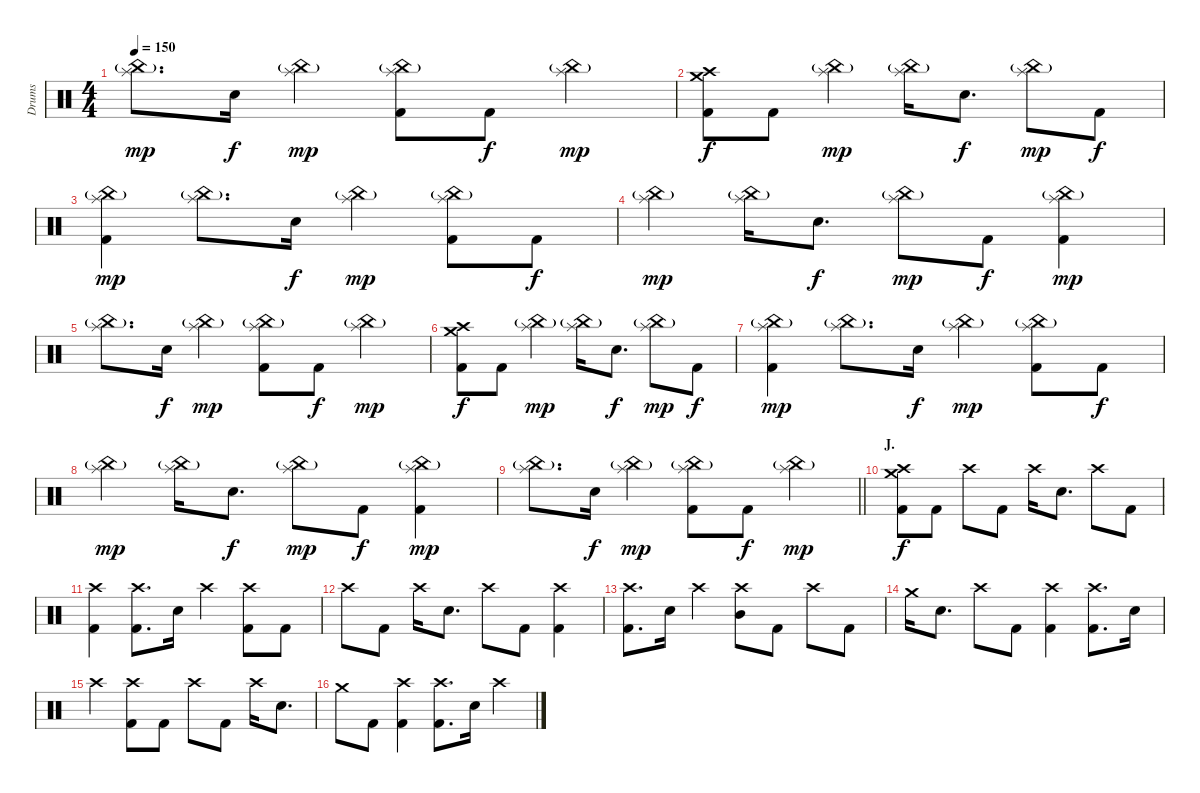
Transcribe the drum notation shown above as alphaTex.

\track ("Drums" "Drums") {instrument percussion}
\staff {score}
\articulation defaults
\ts (4 4)
\tempo 150
\clef neutral
\ks c
("China (hit)"{g} "Splash (hit)").8{d dy mp} "Electric Snare (hit)".16{dy f} ("China (hit)"{g} "Splash (hit)").4{dy mp} ("China (hit)"{g} "Splash (hit)" "Kick (hit) 2").8 "Kick (hit) 2".8{dy f} ("China (hit)"{g} "Splash (hit)").4{dy mp} |
("Crash medium (hit)" "Crash high (hit)" "Kick (hit) 2").8{dy f} "Kick (hit) 2".8 ("China (hit)"{g} "Splash (hit)").4{dy mp} ("China (hit)"{g} "Splash (hit)").16 "Electric Snare (hit)".8{d dy f} ("China (hit)"{g} "Splash (hit)").8{dy mp} "Kick (hit) 2".8{dy f} |
("China (hit)"{g} "Splash (hit)" "Kick (hit) 2").4{dy mp} ("China (hit)"{g} "Splash (hit)").8{d} "Electric Snare (hit)".16{dy f} ("China (hit)"{g} "Splash (hit)").4{dy mp} ("China (hit)"{g} "Splash (hit)" "Kick (hit) 2").8 "Kick (hit) 2".8{dy f} |
("China (hit)"{g} "Splash (hit)").4{dy mp} ("China (hit)"{g} "Splash (hit)").16 "Electric Snare (hit)".8{d dy f} ("China (hit)"{g} "Splash (hit)").8{dy mp} "Kick (hit) 2".8{dy f} ("China (hit)"{g} "Splash (hit)" "Kick (hit) 2").4{dy mp} |
("China (hit)"{g} "Splash (hit)").8{d} "Electric Snare (hit)".16{dy f} ("China (hit)"{g} "Splash (hit)").4{dy mp} ("China (hit)"{g} "Splash (hit)" "Kick (hit) 2").8 "Kick (hit) 2".8{dy f} ("China (hit)"{g} "Splash (hit)").4{dy mp} |
("Crash medium (hit)" "Crash high (hit)" "Kick (hit) 2").8{dy f} "Kick (hit) 2".8 ("China (hit)"{g} "Splash (hit)").4{dy mp} ("China (hit)"{g} "Splash (hit)").16 "Electric Snare (hit)".8{d dy f} ("China (hit)"{g} "Splash (hit)").8{dy mp} "Kick (hit) 2".8{dy f} |
("China (hit)"{g} "Splash (hit)" "Kick (hit) 2").4{dy mp} ("China (hit)"{g} "Splash (hit)").8{d} "Electric Snare (hit)".16{dy f} ("China (hit)"{g} "Splash (hit)").4{dy mp} ("China (hit)"{g} "Splash (hit)" "Kick (hit) 2").8 "Kick (hit) 2".8{dy f} |
("China (hit)"{g} "Splash (hit)").4{dy mp} ("China (hit)"{g} "Splash (hit)").16 "Electric Snare (hit)".8{d dy f} ("China (hit)"{g} "Splash (hit)").8{dy mp} "Kick (hit) 2".8{dy f} ("China (hit)"{g} "Splash (hit)" "Kick (hit) 2").4{dy mp} |
\barLineRight lightlight
("China (hit)"{g} "Splash (hit)").8{d} "Electric Snare (hit)".16{dy f} ("China (hit)"{g} "Splash (hit)").4{dy mp} ("China (hit)"{g} "Splash (hit)" "Kick (hit) 2").8 "Kick (hit) 2".8{dy f} ("China (hit)"{g} "Splash (hit)").4{dy mp} |
\section ("" "J.")
("Crash medium (hit)" "Crash high (hit)" "Kick (hit) 2").8{dy f} "Kick (hit) 2".8 "Crash high (hit)".8 "Kick (hit) 2".8 "Crash high (hit)".16 "Electric Snare (hit)".8{d} "Crash high (hit)".8 "Kick (hit) 2".8 |
("Crash high (hit)" "Kick (hit) 2").4 ("Crash high (hit)" "Kick (hit) 2").8{d} "Electric Snare (hit)".16 "Crash high (hit)".4 ("Crash high (hit)" "Kick (hit) 2").8 "Kick (hit) 2".8 |
"Crash high (hit)".8 "Kick (hit) 2".8 "Crash high (hit)".16 "Electric Snare (hit)".8{d} "Crash high (hit)".8 "Kick (hit) 2".8 ("Crash high (hit)" "Kick (hit) 2").4 |
("Crash high (hit)" "Kick (hit) 2").8{d} "Electric Snare (hit)".16 "Crash high (hit)".4 ("Crash high (hit)" "Mid Tom (hit)").8 "Kick (hit) 2".8 "Crash high (hit)".8 "Kick (hit) 2".8 |
"Crash medium (hit)".16 "Electric Snare (hit)".8{d} "Crash high (hit)".8 "Kick (hit) 2".8 ("Crash high (hit)" "Kick (hit) 2").4 ("Crash high (hit)" "Kick (hit) 2").8{d} "Electric Snare (hit)".16 |
"Crash high (hit)".4 ("Crash high (hit)" "Kick (hit) 2").8 "Kick (hit) 2".8 "Crash high (hit)".8 "Kick (hit) 2".8 "Crash high (hit)".16 "Electric Snare (hit)".8{d} |
"Crash medium (hit)".8 "Kick (hit) 2".8 ("Crash high (hit)" "Kick (hit) 2").4 ("Crash high (hit)" "Kick (hit) 2").8{d} "Electric Snare (hit)".16 "Crash high (hit)".4
